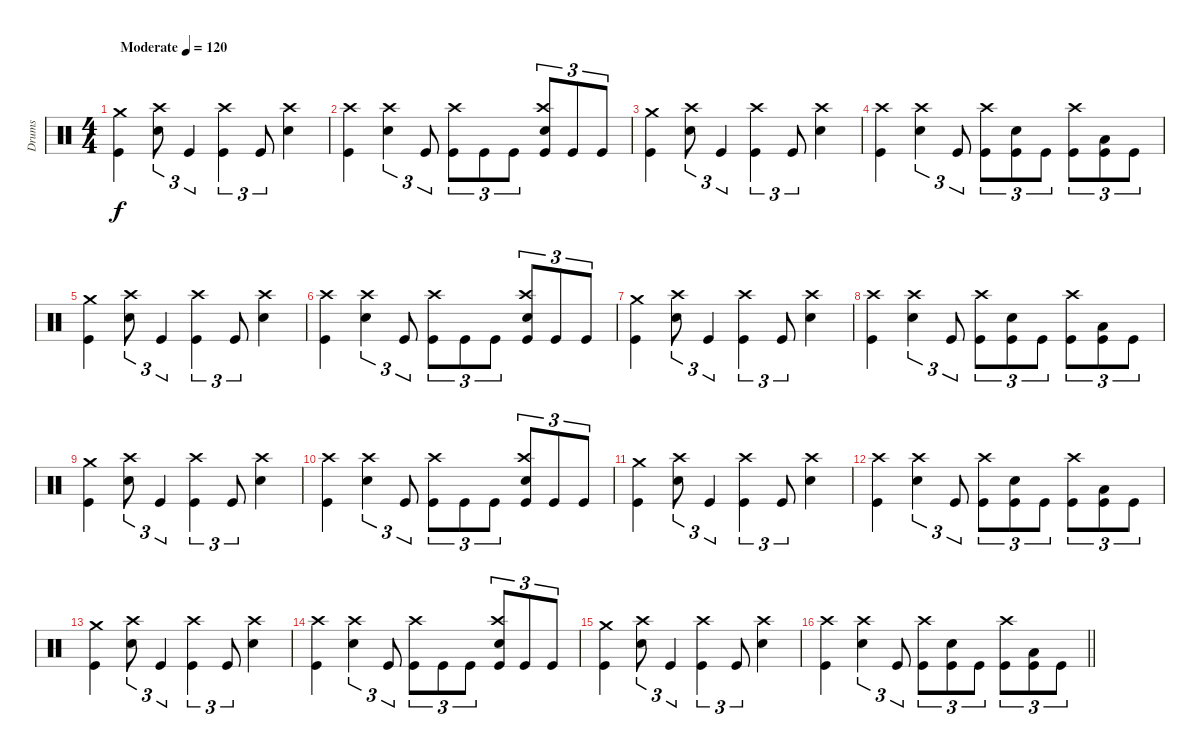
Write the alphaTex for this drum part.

\track ("Drums" "Drums") {instrument percussion}
\staff {score}
\articulation defaults
\ts (4 4)
\tempo (120 "Moderate")
\clef neutral
\ks c
("Crash medium (hit)" "Kick (hit)").4{dy f} ("Crash high (hit)" "Snare (hit) 2").8{tu (3 2)} "Kick (hit)".4{tu (3 2)} ("Crash high (hit)" "Kick (hit)").4{tu (3 2)} "Kick (hit)".8{tu (3 2)} ("Crash high (hit)" "Snare (hit) 2").4 |
("Crash high (hit)" "Kick (hit)").4 ("Crash high (hit)" "Snare (hit) 2").4{tu (3 2)} "Kick (hit)".8{tu (3 2)} ("Crash high (hit)" "Kick (hit)").8{tu (3 2)} "Kick (hit)".8{tu (3 2)} "Kick (hit)".8{tu (3 2)} ("Crash high (hit)" "Snare (hit) 2" "Kick (hit)").8{tu (3 2)} "Kick (hit)".8{tu (3 2)} "Kick (hit)".8{tu (3 2)} |
("Crash medium (hit)" "Kick (hit)").4 ("Crash high (hit)" "Snare (hit) 2").8{tu (3 2)} "Kick (hit)".4{tu (3 2)} ("Crash high (hit)" "Kick (hit)").4{tu (3 2)} "Kick (hit)".8{tu (3 2)} ("Crash high (hit)" "Snare (hit) 2").4 |
("Crash high (hit)" "Kick (hit)").4 ("Crash high (hit)" "Snare (hit) 2").4{tu (3 2)} "Kick (hit)".8{tu (3 2)} ("Crash high (hit)" "Kick (hit)").8{tu (3 2)} ("Snare (hit) 2" "Kick (hit)").8{tu (3 2)} "Kick (hit)".8{tu (3 2)} ("Crash high (hit)" "Kick (hit)").8{tu (3 2)} ("Low Tom (hit)" "Kick (hit)").8{tu (3 2)} "Kick (hit)".8{tu (3 2)} |
("Crash medium (hit)" "Kick (hit)").4 ("Crash high (hit)" "Snare (hit) 2").8{tu (3 2)} "Kick (hit)".4{tu (3 2)} ("Crash high (hit)" "Kick (hit)").4{tu (3 2)} "Kick (hit)".8{tu (3 2)} ("Crash high (hit)" "Snare (hit) 2").4 |
("Crash high (hit)" "Kick (hit)").4 ("Crash high (hit)" "Snare (hit) 2").4{tu (3 2)} "Kick (hit)".8{tu (3 2)} ("Crash high (hit)" "Kick (hit)").8{tu (3 2)} "Kick (hit)".8{tu (3 2)} "Kick (hit)".8{tu (3 2)} ("Crash high (hit)" "Snare (hit) 2" "Kick (hit)").8{tu (3 2)} "Kick (hit)".8{tu (3 2)} "Kick (hit)".8{tu (3 2)} |
("Crash medium (hit)" "Kick (hit)").4 ("Crash high (hit)" "Snare (hit) 2").8{tu (3 2)} "Kick (hit)".4{tu (3 2)} ("Crash high (hit)" "Kick (hit)").4{tu (3 2)} "Kick (hit)".8{tu (3 2)} ("Crash high (hit)" "Snare (hit) 2").4 |
("Crash high (hit)" "Kick (hit)").4 ("Crash high (hit)" "Snare (hit) 2").4{tu (3 2)} "Kick (hit)".8{tu (3 2)} ("Crash high (hit)" "Kick (hit)").8{tu (3 2)} ("Snare (hit) 2" "Kick (hit)").8{tu (3 2)} "Kick (hit)".8{tu (3 2)} ("Crash high (hit)" "Kick (hit)").8{tu (3 2)} ("Low Tom (hit)" "Kick (hit)").8{tu (3 2)} "Kick (hit)".8{tu (3 2)} |
("Crash medium (hit)" "Kick (hit)").4 ("Crash high (hit)" "Snare (hit) 2").8{tu (3 2)} "Kick (hit)".4{tu (3 2)} ("Crash high (hit)" "Kick (hit)").4{tu (3 2)} "Kick (hit)".8{tu (3 2)} ("Crash high (hit)" "Snare (hit) 2").4 |
("Crash high (hit)" "Kick (hit)").4 ("Crash high (hit)" "Snare (hit) 2").4{tu (3 2)} "Kick (hit)".8{tu (3 2)} ("Crash high (hit)" "Kick (hit)").8{tu (3 2)} "Kick (hit)".8{tu (3 2)} "Kick (hit)".8{tu (3 2)} ("Crash high (hit)" "Snare (hit) 2" "Kick (hit)").8{tu (3 2)} "Kick (hit)".8{tu (3 2)} "Kick (hit)".8{tu (3 2)} |
("Crash medium (hit)" "Kick (hit)").4 ("Crash high (hit)" "Snare (hit) 2").8{tu (3 2)} "Kick (hit)".4{tu (3 2)} ("Crash high (hit)" "Kick (hit)").4{tu (3 2)} "Kick (hit)".8{tu (3 2)} ("Crash high (hit)" "Snare (hit) 2").4 |
("Crash high (hit)" "Kick (hit)").4 ("Crash high (hit)" "Snare (hit) 2").4{tu (3 2)} "Kick (hit)".8{tu (3 2)} ("Crash high (hit)" "Kick (hit)").8{tu (3 2)} ("Snare (hit) 2" "Kick (hit)").8{tu (3 2)} "Kick (hit)".8{tu (3 2)} ("Crash high (hit)" "Kick (hit)").8{tu (3 2)} ("Low Tom (hit)" "Kick (hit)").8{tu (3 2)} "Kick (hit)".8{tu (3 2)} |
("Crash medium (hit)" "Kick (hit)").4 ("Crash high (hit)" "Snare (hit) 2").8{tu (3 2)} "Kick (hit)".4{tu (3 2)} ("Crash high (hit)" "Kick (hit)").4{tu (3 2)} "Kick (hit)".8{tu (3 2)} ("Crash high (hit)" "Snare (hit) 2").4 |
("Crash high (hit)" "Kick (hit)").4 ("Crash high (hit)" "Snare (hit) 2").4{tu (3 2)} "Kick (hit)".8{tu (3 2)} ("Crash high (hit)" "Kick (hit)").8{tu (3 2)} "Kick (hit)".8{tu (3 2)} "Kick (hit)".8{tu (3 2)} ("Crash high (hit)" "Snare (hit) 2" "Kick (hit)").8{tu (3 2)} "Kick (hit)".8{tu (3 2)} "Kick (hit)".8{tu (3 2)} |
("Crash medium (hit)" "Kick (hit)").4 ("Crash high (hit)" "Snare (hit) 2").8{tu (3 2)} "Kick (hit)".4{tu (3 2)} ("Crash high (hit)" "Kick (hit)").4{tu (3 2)} "Kick (hit)".8{tu (3 2)} ("Crash high (hit)" "Snare (hit) 2").4 |
\barLineRight lightlight
("Crash high (hit)" "Kick (hit)").4 ("Crash high (hit)" "Snare (hit) 2").4{tu (3 2)} "Kick (hit)".8{tu (3 2)} ("Crash high (hit)" "Kick (hit)").8{tu (3 2)} ("Snare (hit) 2" "Kick (hit)").8{tu (3 2)} "Kick (hit)".8{tu (3 2)} ("Crash high (hit)" "Kick (hit)").8{tu (3 2)} ("Low Tom (hit)" "Kick (hit)").8{tu (3 2)} "Kick (hit)".8{tu (3 2)}
